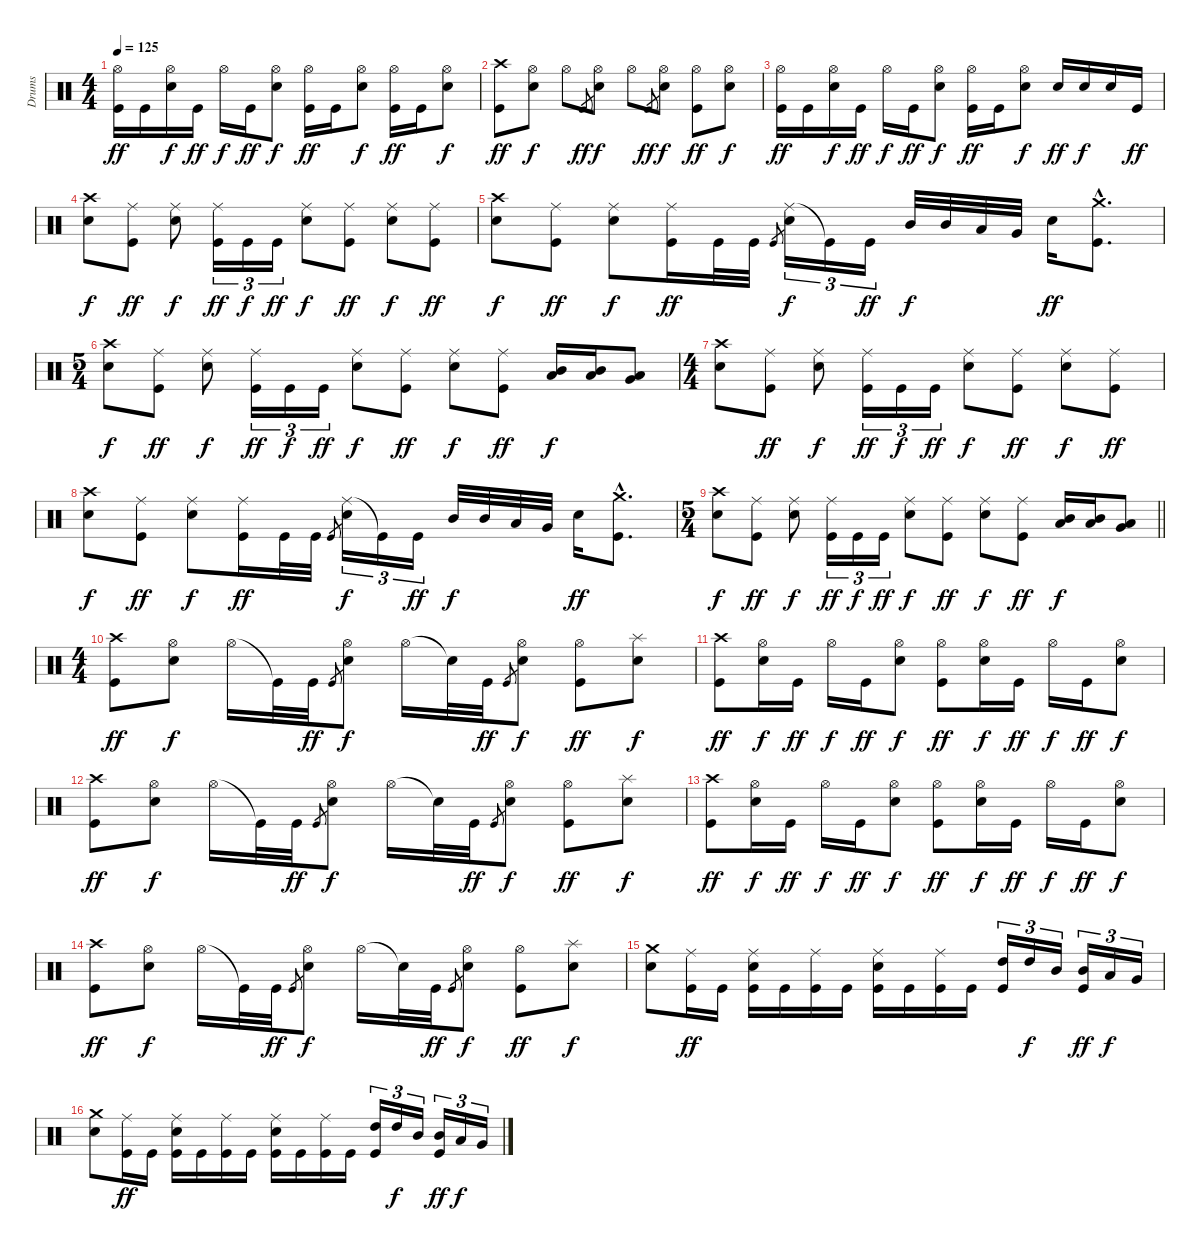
\track ("Drums" "Drums") {instrument percussion}
\staff {score}
\articulation defaults
\ts (4 4)
\tempo 125
\clef neutral
\ks c
("Hi-Hat (open)" "Kick (hit)").16{dy ff} "Kick (hit)".16 ("Hi-Hat (open)" "Snare (hit) 2").16{dy f} "Kick (hit)".16{dy ff} "Hi-Hat (open)".16{dy f} "Kick (hit)".16{dy ff} ("Hi-Hat (open)" "Snare (hit) 2").8{dy f} ("Hi-Hat (open)" "Kick (hit)").16{dy ff} "Kick (hit)".16 ("Hi-Hat (open)" "Snare (hit) 2").8{dy f} ("Hi-Hat (open)" "Kick (hit)").16{dy ff} "Kick (hit)".16 ("Hi-Hat (open)" "Snare (hit) 2").8{dy f} |
("Crash high (hit)" "Kick (hit)").8{dy ff} ("Hi-Hat (open)" "Snare (hit) 2").8{dy f} "Hi-Hat (open)".8 "Kick (hit)".8{gr dy ff} ("Hi-Hat (open)" "Snare (hit) 2").8{dy f} "Hi-Hat (open)".8 "Kick (hit)".8{gr dy ff} ("Hi-Hat (open)" "Snare (hit) 2").8{dy f} ("Hi-Hat (open)" "Kick (hit)").8{dy ff} ("Hi-Hat (open)" "Snare (hit) 2").8{dy f} |
("Hi-Hat (open)" "Kick (hit)").16{dy ff} "Kick (hit)".16 ("Hi-Hat (open)" "Snare (hit) 2").16{dy f} "Kick (hit)".16{dy ff} "Hi-Hat (open)".16{dy f} "Kick (hit)".16{dy ff} ("Hi-Hat (open)" "Snare (hit) 2").8{dy f} ("Hi-Hat (open)" "Kick (hit)").16{dy ff} "Kick (hit)".16 ("Hi-Hat (open)" "Snare (hit) 2").8{dy f} "Snare (hit) 2".16{dy ff} "Snare (hit) 2".16{dy f} "Snare (hit) 2".16 "Kick (hit)".16{dy ff} |
("Crash high (hit)" "Snare (hit) 2").8{dy f} ("Ride (middle)" "Kick (hit)").8{dy ff} ("Ride (middle)" "Snare (hit) 2").8{dy f} ("Ride (middle)" "Kick (hit)").16{tu (3 2) dy ff} "Kick (hit)".16{tu (3 2) dy f} "Kick (hit)".16{tu (3 2) dy ff} ("Ride (middle)" "Snare (hit) 2").8{dy f} ("Ride (middle)" "Kick (hit)").8{dy ff} ("Ride (middle)" "Snare (hit) 2").8{dy f} ("Ride (middle)" "Kick (hit)").8{dy ff} |
("Crash high (hit)" "Snare (hit) 2").8{dy f} ("Ride (middle)" "Kick (hit)").8{dy ff} ("Ride (middle)" "Snare (hit) 2").8{dy f} ("Ride (middle)" "Kick (hit)").16{dy ff} "Kick (hit)".32 "Kick (hit)".32 "Kick (hit)".8{gr} ("Ride (middle)" "Snare (hit) 2").16{tu (3 2) dy f} "Kick (hit)"{t}.16{tu (3 2)} "Kick (hit)".16{tu (3 2) dy ff} "Mid Tom (hit)".32{dy f} "Mid Tom (hit)".32 "Low Tom (hit)".32 "Very Low Tom (hit)".32 "Snare (hit) 2".16{dy ff} ("Crash medium (hit)"{hac} "Kick (hit)"{hac}).8{d} |
\ts (5 4)
("Crash high (hit)" "Snare (hit) 2").8{dy f} ("Ride (middle)" "Kick (hit)").8{dy ff} ("Ride (middle)" "Snare (hit) 2").8{dy f} ("Ride (middle)" "Kick (hit)").16{tu (3 2) dy ff} "Kick (hit)".16{tu (3 2) dy f} "Kick (hit)".16{tu (3 2) dy ff} ("Ride (middle)" "Snare (hit) 2").8{dy f} ("Ride (middle)" "Kick (hit)").8{dy ff} ("Ride (middle)" "Snare (hit) 2").8{dy f} ("Ride (middle)" "Kick (hit)").8{dy ff} ("Mid Tom (hit)" "Low Tom (hit)").16{dy f} ("Mid Tom (hit)" "Low Tom (hit)").16 ("Low Tom (hit)" "Very Low Tom (hit)").8 |
\ts (4 4)
("Crash high (hit)" "Snare (hit) 2").8 ("Ride (middle)" "Kick (hit)").8{dy ff} ("Ride (middle)" "Snare (hit) 2").8{dy f} ("Ride (middle)" "Kick (hit)").16{tu (3 2) dy ff} "Kick (hit)".16{tu (3 2) dy f} "Kick (hit)".16{tu (3 2) dy ff} ("Ride (middle)" "Snare (hit) 2").8{dy f} ("Ride (middle)" "Kick (hit)").8{dy ff} ("Ride (middle)" "Snare (hit) 2").8{dy f} ("Ride (middle)" "Kick (hit)").8{dy ff} |
("Crash high (hit)" "Snare (hit) 2").8{dy f} ("Ride (middle)" "Kick (hit)").8{dy ff} ("Ride (middle)" "Snare (hit) 2").8{dy f} ("Ride (middle)" "Kick (hit)").16{dy ff} "Kick (hit)".32 "Kick (hit)".32 "Kick (hit)".8{gr} ("Ride (middle)" "Snare (hit) 2").16{tu (3 2) dy f} "Kick (hit)"{t}.16{tu (3 2)} "Kick (hit)".16{tu (3 2) dy ff} "Mid Tom (hit)".32{dy f} "Mid Tom (hit)".32 "Low Tom (hit)".32 "Very Low Tom (hit)".32 "Snare (hit) 2".16{dy ff} ("Crash medium (hit)"{hac} "Kick (hit)"{hac}).8{d} |
\ts (5 4)
\barLineRight lightlight
("Crash high (hit)" "Snare (hit) 2").8{dy f} ("Ride (middle)" "Kick (hit)").8{dy ff} ("Ride (middle)" "Snare (hit) 2").8{dy f} ("Ride (middle)" "Kick (hit)").16{tu (3 2) dy ff} "Kick (hit)".16{tu (3 2) dy f} "Kick (hit)".16{tu (3 2) dy ff} ("Ride (middle)" "Snare (hit) 2").8{dy f} ("Ride (middle)" "Kick (hit)").8{dy ff} ("Ride (middle)" "Snare (hit) 2").8{dy f} ("Ride (middle)" "Kick (hit)").8{dy ff} ("Mid Tom (hit)" "Low Tom (hit)").16{dy f} ("Mid Tom (hit)" "Low Tom (hit)").16 ("Low Tom (hit)" "Very Low Tom (hit)").8 |
\ts (4 4)
("Crash high (hit)" "Kick (hit)").8{dy ff} ("Hi-Hat (open)" "Snare (hit) 2").8{dy f} "Hi-Hat (open)".16 "Kick (hit)"{t}.32 "Kick (hit)".32{dy ff} "Kick (hit)".8{gr} ("Hi-Hat (open)" "Snare (hit) 2").8{dy f} "Hi-Hat (open)".16 "Snare (hit)"{t}.32 "Kick (hit)".32{dy ff} "Kick (hit)".8{gr} ("Hi-Hat (open)" "Snare (hit) 2").8{dy f} ("Hi-Hat (open)" "Kick (hit)").8{dy ff} ("Splash (hit)" "Snare (hit) 2").8{dy f} |
("Crash high (hit)" "Kick (hit)").8{dy ff} ("Hi-Hat (open)" "Snare (hit) 2").16{dy f} "Kick (hit)".16{dy ff} "Hi-Hat (open)".16{dy f} "Kick (hit)".16{dy ff} ("Hi-Hat (open)" "Snare (hit) 2").8{dy f} ("Hi-Hat (open)" "Kick (hit)").8{dy ff} ("Hi-Hat (open)" "Snare (hit) 2").16{dy f} "Kick (hit)".16{dy ff} "Hi-Hat (open)".16{dy f} "Kick (hit)".16{dy ff} ("Hi-Hat (open)" "Snare (hit) 2").8{dy f} |
("Crash high (hit)" "Kick (hit)").8{dy ff} ("Hi-Hat (open)" "Snare (hit) 2").8{dy f} "Hi-Hat (open)".16 "Kick (hit)"{t}.32 "Kick (hit)".32{dy ff} "Kick (hit)".8{gr} ("Hi-Hat (open)" "Snare (hit) 2").8{dy f} "Hi-Hat (open)".16 "Snare (hit)"{t}.32 "Kick (hit)".32{dy ff} "Kick (hit)".8{gr} ("Hi-Hat (open)" "Snare (hit) 2").8{dy f} ("Hi-Hat (open)" "Kick (hit)").8{dy ff} ("Splash (hit)" "Snare (hit) 2").8{dy f} |
("Crash high (hit)" "Kick (hit)").8{dy ff} ("Hi-Hat (open)" "Snare (hit) 2").16{dy f} "Kick (hit)".16{dy ff} "Hi-Hat (open)".16{dy f} "Kick (hit)".16{dy ff} ("Hi-Hat (open)" "Snare (hit) 2").8{dy f} ("Hi-Hat (open)" "Kick (hit)").8{dy ff} ("Hi-Hat (open)" "Snare (hit) 2").16{dy f} "Kick (hit)".16{dy ff} "Hi-Hat (open)".16{dy f} "Kick (hit)".16{dy ff} ("Hi-Hat (open)" "Snare (hit) 2").8{dy f} |
("Crash high (hit)" "Kick (hit)").8{dy ff} ("Hi-Hat (open)" "Snare (hit) 2").8{dy f} "Hi-Hat (open)".16 "Kick (hit)"{t}.32 "Kick (hit)".32{dy ff} "Kick (hit)".8{gr} ("Hi-Hat (open)" "Snare (hit) 2").8{dy f} "Hi-Hat (open)".16 "Snare (hit)"{t}.32 "Kick (hit)".32{dy ff} "Kick (hit)".8{gr} ("Hi-Hat (open)" "Snare (hit) 2").8{dy f} ("Hi-Hat (open)" "Kick (hit)").8{dy ff} ("Splash (hit)" "Snare (hit) 2").8{dy f} |
("Crash medium (hit)" "Snare (hit) 2").8 ("Ride (middle)" "Kick (hit)").16{dy ff} "Kick (hit)".16 ("Ride (middle)" "Snare (hit) 2" "Kick (hit)").16 "Kick (hit)".16 ("Ride (middle)" "Kick (hit)").16 "Kick (hit)".16 ("Ride (middle)" "Snare (hit) 2" "Kick (hit)").16 "Kick (hit)".16 ("Ride (middle)" "Kick (hit)").16 "Kick (hit)".16 ("High Tom (hit)" "Kick (hit)").16{tu (3 2)} "High Tom (hit)".16{tu (3 2) dy f} "Mid Tom (hit)".16{tu (3 2)} ("Mid Tom (hit)" "Kick (hit)").16{tu (3 2) dy ff} "Low Tom (hit)".16{tu (3 2) dy f} "Very Low Tom (hit)".16{tu (3 2)} |
("Crash medium (hit)" "Snare (hit) 2").8 ("Ride (middle)" "Kick (hit)").16{dy ff} "Kick (hit)".16 ("Ride (middle)" "Snare (hit) 2" "Kick (hit)").16 "Kick (hit)".16 ("Ride (middle)" "Kick (hit)").16 "Kick (hit)".16 ("Ride (middle)" "Snare (hit) 2" "Kick (hit)").16 "Kick (hit)".16 ("Ride (middle)" "Kick (hit)").16 "Kick (hit)".16 ("High Tom (hit)" "Kick (hit)").16{tu (3 2)} "High Tom (hit)".16{tu (3 2) dy f} "Mid Tom (hit)".16{tu (3 2)} ("Mid Tom (hit)" "Kick (hit)").16{tu (3 2) dy ff} "Low Tom (hit)".16{tu (3 2) dy f} "Very Low Tom (hit)".16{tu (3 2)}
